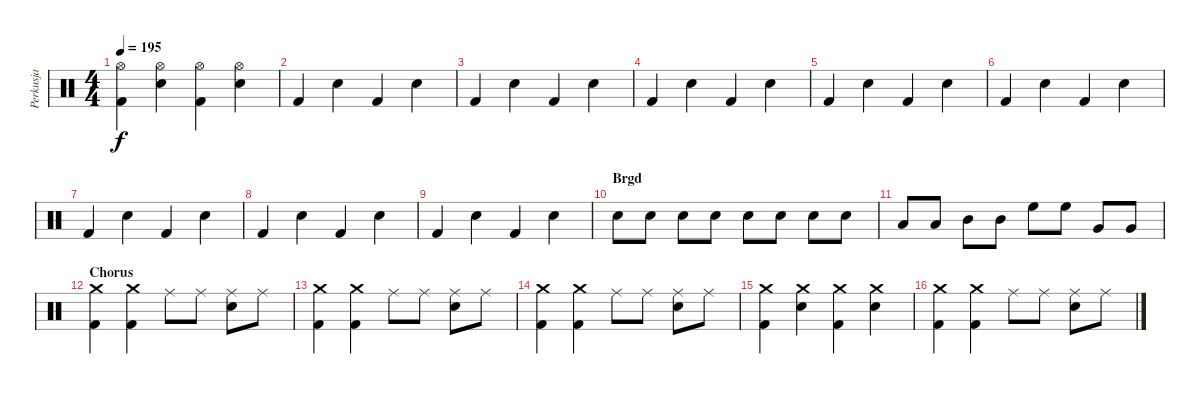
\track ("Perkusja" "Perkusja") {instrument percussion}
\staff {score}
\articulation defaults
\ts (4 4)
\tempo 195
\clef neutral
\ks c
("Hi-Hat (open)" "Kick (hit) 2").4{dy f} ("Hi-Hat (open)" "Snare (hit) 2").4 ("Hi-Hat (open)" "Kick (hit) 2").4 ("Hi-Hat (open)" "Snare (hit) 2").4 |
"Kick (hit) 2".4 "Snare (hit) 2".4 "Kick (hit) 2".4 "Snare (hit) 2".4 |
"Kick (hit) 2".4 "Snare (hit) 2".4 "Kick (hit) 2".4 "Snare (hit) 2".4 |
"Kick (hit) 2".4 "Snare (hit) 2".4 "Kick (hit) 2".4 "Snare (hit) 2".4 |
"Kick (hit) 2".4 "Snare (hit) 2".4 "Kick (hit) 2".4 "Snare (hit) 2".4 |
"Kick (hit) 2".4 "Snare (hit) 2".4 "Kick (hit) 2".4 "Snare (hit) 2".4 |
"Kick (hit) 2".4 "Snare (hit) 2".4 "Kick (hit) 2".4 "Snare (hit) 2".4 |
"Kick (hit) 2".4 "Snare (hit) 2".4 "Kick (hit) 2".4 "Snare (hit) 2".4 |
"Kick (hit) 2".4 "Snare (hit) 2".4 "Kick (hit) 2".4 "Snare (hit) 2".4 |
\section ("" "Brgd")
"Snare (hit) 2".8 "Snare (hit) 2".8 "Snare (hit) 2".8 "Snare (hit) 2".8 "Snare (hit) 2".8 "Snare (hit) 2".8 "Snare (hit) 2".8 "Snare (hit) 2".8 |
"Low Tom (hit)".8 "Low Tom (hit)".8 "Mid Tom (hit)".8 "Mid Tom (hit)".8 "High Floor Tom (hit)".8 "High Floor Tom (hit)".8 "Very Low Tom (hit)".8 "Very Low Tom (hit)".8 |
\section ("" "Chorus")
("Crash medium (hit)" "Kick (hit) 2").4 ("Crash medium (hit)" "Kick (hit) 2").4 "Ride (middle)".8 "Ride (middle)".8 ("Ride (middle)" "Snare (hit) 2").8 "Ride (middle)".8 |
("Crash medium (hit)" "Kick (hit) 2").4 ("Crash medium (hit)" "Kick (hit) 2").4 "Ride (middle)".8 "Ride (middle)".8 ("Ride (middle)" "Snare (hit) 2").8 "Ride (middle)".8 |
("Crash medium (hit)" "Kick (hit) 2").4 ("Crash medium (hit)" "Kick (hit) 2").4 "Ride (middle)".8 "Ride (middle)".8 ("Ride (middle)" "Snare (hit) 2").8 "Ride (middle)".8 |
("Crash medium (hit)" "Kick (hit) 2").4 ("Crash medium (hit)" "Snare (hit) 2").4 ("Crash medium (hit)" "Kick (hit) 2").4 ("Crash medium (hit)" "Snare (hit) 2").4 |
("Crash medium (hit)" "Kick (hit) 2").4 ("Crash medium (hit)" "Kick (hit) 2").4 "Ride (middle)".8 "Ride (middle)".8 ("Ride (middle)" "Snare (hit) 2").8 "Ride (middle)".8
